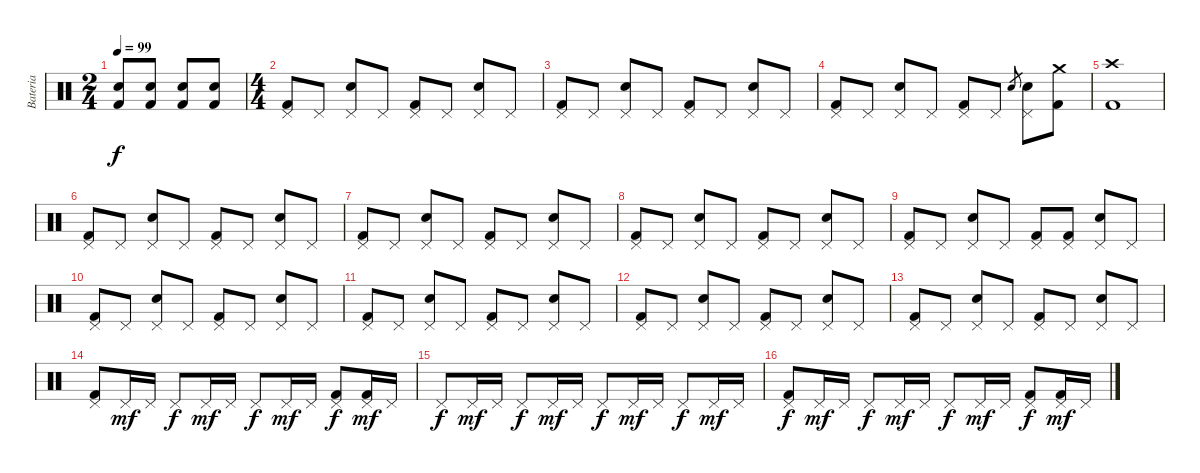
\track ("Bateria" "Bateria") {instrument percussion}
\staff {score}
\articulation defaults
\ts (2 4)
\tempo 99
\clef neutral
\ks c
("Electric Snare (hit)" "Kick (hit) 2").8{dy f} ("Electric Snare (hit)" "Kick (hit) 2").8 ("Electric Snare (hit)" "Kick (hit) 2").8 ("Electric Snare (hit)" "Kick (hit) 2").8 |
\ts (4 4)
("Pedal Hi-Hat (hit)" "Kick (hit) 2").8 "Pedal Hi-Hat (hit)".8 ("Pedal Hi-Hat (hit)" "Electric Snare (hit)").8 "Pedal Hi-Hat (hit)".8 ("Pedal Hi-Hat (hit)" "Kick (hit) 2").8 "Pedal Hi-Hat (hit)".8 ("Pedal Hi-Hat (hit)" "Electric Snare (hit)").8 "Pedal Hi-Hat (hit)".8 |
("Pedal Hi-Hat (hit)" "Kick (hit) 2").8 "Pedal Hi-Hat (hit)".8 ("Pedal Hi-Hat (hit)" "Electric Snare (hit)").8 "Pedal Hi-Hat (hit)".8 ("Pedal Hi-Hat (hit)" "Kick (hit) 2").8 "Pedal Hi-Hat (hit)".8 ("Pedal Hi-Hat (hit)" "Electric Snare (hit)").8 "Pedal Hi-Hat (hit)".8 |
("Pedal Hi-Hat (hit)" "Kick (hit) 2").8 "Pedal Hi-Hat (hit)".8 ("Pedal Hi-Hat (hit)" "Electric Snare (hit)").8 "Pedal Hi-Hat (hit)".8 ("Pedal Hi-Hat (hit)" "Kick (hit) 2").8 "Pedal Hi-Hat (hit)".8 "Electric Snare (hit)".8{gr} ("Pedal Hi-Hat (hit)" "Electric Snare (hit)").8 ("Crash medium (hit)" "Kick (hit) 2").8 |
("Crash high (hit)" "Kick (hit) 2").1 |
("Pedal Hi-Hat (hit)" "Kick (hit) 2").8 "Pedal Hi-Hat (hit)".8 ("Pedal Hi-Hat (hit)" "Electric Snare (hit)").8 "Pedal Hi-Hat (hit)".8 ("Pedal Hi-Hat (hit)" "Kick (hit) 2").8 "Pedal Hi-Hat (hit)".8 ("Pedal Hi-Hat (hit)" "Electric Snare (hit)").8 "Pedal Hi-Hat (hit)".8 |
("Pedal Hi-Hat (hit)" "Kick (hit) 2").8 "Pedal Hi-Hat (hit)".8 ("Pedal Hi-Hat (hit)" "Electric Snare (hit)").8 "Pedal Hi-Hat (hit)".8 ("Pedal Hi-Hat (hit)" "Kick (hit) 2").8 "Pedal Hi-Hat (hit)".8 ("Pedal Hi-Hat (hit)" "Electric Snare (hit)").8 "Pedal Hi-Hat (hit)".8 |
("Pedal Hi-Hat (hit)" "Kick (hit) 2").8 "Pedal Hi-Hat (hit)".8 ("Pedal Hi-Hat (hit)" "Electric Snare (hit)").8 "Pedal Hi-Hat (hit)".8 ("Pedal Hi-Hat (hit)" "Kick (hit) 2").8 "Pedal Hi-Hat (hit)".8 ("Pedal Hi-Hat (hit)" "Electric Snare (hit)").8 "Pedal Hi-Hat (hit)".8 |
("Pedal Hi-Hat (hit)" "Kick (hit) 2").8 "Pedal Hi-Hat (hit)".8 ("Pedal Hi-Hat (hit)" "Electric Snare (hit)").8 "Pedal Hi-Hat (hit)".8 ("Pedal Hi-Hat (hit)" "Kick (hit) 2").8 ("Pedal Hi-Hat (hit)" "Kick (hit) 2").8 ("Pedal Hi-Hat (hit)" "Electric Snare (hit)").8 "Pedal Hi-Hat (hit)".8 |
("Pedal Hi-Hat (hit)" "Kick (hit) 2").8 "Pedal Hi-Hat (hit)".8 ("Pedal Hi-Hat (hit)" "Electric Snare (hit)").8 "Pedal Hi-Hat (hit)".8 ("Pedal Hi-Hat (hit)" "Kick (hit) 2").8 "Pedal Hi-Hat (hit)".8 ("Pedal Hi-Hat (hit)" "Electric Snare (hit)").8 "Pedal Hi-Hat (hit)".8 |
("Pedal Hi-Hat (hit)" "Kick (hit) 2").8 "Pedal Hi-Hat (hit)".8 ("Pedal Hi-Hat (hit)" "Electric Snare (hit)").8 "Pedal Hi-Hat (hit)".8 ("Pedal Hi-Hat (hit)" "Kick (hit) 2").8 "Pedal Hi-Hat (hit)".8 ("Pedal Hi-Hat (hit)" "Electric Snare (hit)").8 "Pedal Hi-Hat (hit)".8 |
("Pedal Hi-Hat (hit)" "Kick (hit) 2").8 "Pedal Hi-Hat (hit)".8 ("Pedal Hi-Hat (hit)" "Electric Snare (hit)").8 "Pedal Hi-Hat (hit)".8 ("Pedal Hi-Hat (hit)" "Kick (hit) 2").8 "Pedal Hi-Hat (hit)".8 ("Pedal Hi-Hat (hit)" "Electric Snare (hit)").8 "Pedal Hi-Hat (hit)".8 |
("Pedal Hi-Hat (hit)" "Kick (hit) 2").8 "Pedal Hi-Hat (hit)".8 ("Pedal Hi-Hat (hit)" "Electric Snare (hit)").8 "Pedal Hi-Hat (hit)".8 ("Pedal Hi-Hat (hit)" "Kick (hit) 2").8 "Pedal Hi-Hat (hit)".8 ("Pedal Hi-Hat (hit)" "Electric Snare (hit)").8 "Pedal Hi-Hat (hit)".8 |
("Pedal Hi-Hat (hit)" "Kick (hit) 2").8 "Pedal Hi-Hat (hit)".16{dy mf} "Pedal Hi-Hat (hit)".16 "Pedal Hi-Hat (hit)".8{dy f} "Pedal Hi-Hat (hit)".16{dy mf} "Pedal Hi-Hat (hit)".16 "Pedal Hi-Hat (hit)".8{dy f} "Pedal Hi-Hat (hit)".16{dy mf} "Pedal Hi-Hat (hit)".16 ("Pedal Hi-Hat (hit)" "Kick (hit) 2").8{dy f} ("Pedal Hi-Hat (hit)" "Kick (hit) 2").16{dy mf} "Pedal Hi-Hat (hit)".16 |
"Pedal Hi-Hat (hit)".8{dy f} "Pedal Hi-Hat (hit)".16{dy mf} "Pedal Hi-Hat (hit)".16 "Pedal Hi-Hat (hit)".8{dy f} "Pedal Hi-Hat (hit)".16{dy mf} "Pedal Hi-Hat (hit)".16 "Pedal Hi-Hat (hit)".8{dy f} "Pedal Hi-Hat (hit)".16{dy mf} "Pedal Hi-Hat (hit)".16 "Pedal Hi-Hat (hit)".8{dy f} "Pedal Hi-Hat (hit)".16{dy mf} "Pedal Hi-Hat (hit)".16 |
("Pedal Hi-Hat (hit)" "Kick (hit) 2").8{dy f} "Pedal Hi-Hat (hit)".16{dy mf} "Pedal Hi-Hat (hit)".16 "Pedal Hi-Hat (hit)".8{dy f} "Pedal Hi-Hat (hit)".16{dy mf} "Pedal Hi-Hat (hit)".16 "Pedal Hi-Hat (hit)".8{dy f} "Pedal Hi-Hat (hit)".16{dy mf} "Pedal Hi-Hat (hit)".16 ("Pedal Hi-Hat (hit)" "Kick (hit) 2").8{dy f} ("Pedal Hi-Hat (hit)" "Kick (hit) 2").16{dy mf} "Pedal Hi-Hat (hit)".16
